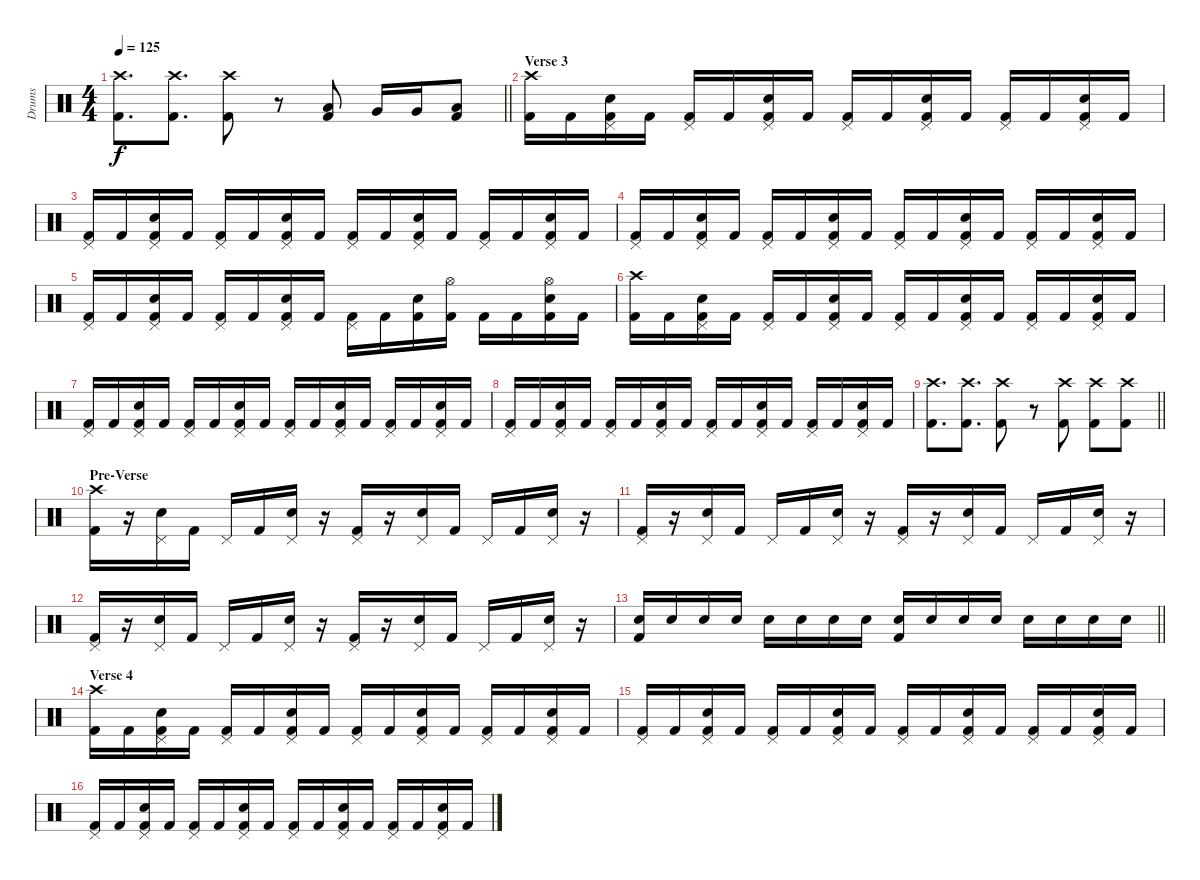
\track ("Drums" "Drums") {instrument percussion}
\staff {score}
\articulation defaults
\ts (4 4)
\tempo 125
\clef neutral
\barLineRight lightlight
\ks c
("Crash high (hit)" "Kick (hit) 2").8{d dy f} ("Crash high (hit)" "Kick (hit) 2").8{d} ("Crash high (hit)" "Kick (hit) 2").8 r.8 ("Low Tom (hit)" "Kick (hit) 2").8 "Very Low Tom (hit)".16 "Very Low Tom (hit)".16 ("Low Tom (hit)" "Kick (hit) 2").8 |
\section ("" "Verse 3")
("Crash high (hit)" "Kick (hit) 2").16 "Kick (hit) 2".16 ("Pedal Hi-Hat (hit)" "Snare (hit) 2" "Kick (hit) 2").16 "Kick (hit) 2".16 ("Pedal Hi-Hat (hit)" "Kick (hit) 2").16 "Kick (hit) 2".16 ("Pedal Hi-Hat (hit)" "Snare (hit) 2" "Kick (hit) 2").16 "Kick (hit) 2".16 ("Pedal Hi-Hat (hit)" "Kick (hit) 2").16 "Kick (hit) 2".16 ("Pedal Hi-Hat (hit)" "Snare (hit) 2" "Kick (hit) 2").16 "Kick (hit) 2".16 ("Pedal Hi-Hat (hit)" "Kick (hit) 2").16 "Kick (hit) 2".16 ("Pedal Hi-Hat (hit)" "Snare (hit) 2" "Kick (hit) 2").16 "Kick (hit) 2".16 |
("Pedal Hi-Hat (hit)" "Kick (hit) 2").16 "Kick (hit) 2".16 ("Pedal Hi-Hat (hit)" "Snare (hit) 2" "Kick (hit) 2").16 "Kick (hit) 2".16 ("Pedal Hi-Hat (hit)" "Kick (hit) 2").16 "Kick (hit) 2".16 ("Pedal Hi-Hat (hit)" "Snare (hit) 2" "Kick (hit) 2").16 "Kick (hit) 2".16 ("Pedal Hi-Hat (hit)" "Kick (hit) 2").16 "Kick (hit) 2".16 ("Pedal Hi-Hat (hit)" "Snare (hit) 2" "Kick (hit) 2").16 "Kick (hit) 2".16 ("Pedal Hi-Hat (hit)" "Kick (hit) 2").16 "Kick (hit) 2".16 ("Pedal Hi-Hat (hit)" "Snare (hit) 2" "Kick (hit) 2").16 "Kick (hit) 2".16 |
("Pedal Hi-Hat (hit)" "Kick (hit) 2").16 "Kick (hit) 2".16 ("Pedal Hi-Hat (hit)" "Snare (hit) 2" "Kick (hit) 2").16 "Kick (hit) 2".16 ("Pedal Hi-Hat (hit)" "Kick (hit) 2").16 "Kick (hit) 2".16 ("Pedal Hi-Hat (hit)" "Snare (hit) 2" "Kick (hit) 2").16 "Kick (hit) 2".16 ("Pedal Hi-Hat (hit)" "Kick (hit) 2").16 "Kick (hit) 2".16 ("Pedal Hi-Hat (hit)" "Snare (hit) 2" "Kick (hit) 2").16 "Kick (hit) 2".16 ("Pedal Hi-Hat (hit)" "Kick (hit) 2").16 "Kick (hit) 2".16 ("Pedal Hi-Hat (hit)" "Snare (hit) 2" "Kick (hit) 2").16 "Kick (hit) 2".16 |
("Pedal Hi-Hat (hit)" "Kick (hit) 2").16 "Kick (hit) 2".16 ("Pedal Hi-Hat (hit)" "Snare (hit) 2" "Kick (hit) 2").16 "Kick (hit) 2".16 ("Pedal Hi-Hat (hit)" "Kick (hit) 2").16 "Kick (hit) 2".16 ("Pedal Hi-Hat (hit)" "Snare (hit) 2" "Kick (hit) 2").16 "Kick (hit) 2".16 ("Pedal Hi-Hat (hit)" "Kick (hit) 2").16 "Kick (hit) 2".16 ("Snare (hit) 2" "Kick (hit) 2").16 ("Hi-Hat (open)" "Kick (hit) 2").16 "Kick (hit) 2".16 "Kick (hit) 2".16 ("Hi-Hat (open)" "Snare (hit) 2" "Kick (hit) 2").16 "Kick (hit) 2".16 |
("Crash high (hit)" "Kick (hit) 2").16 "Kick (hit) 2".16 ("Pedal Hi-Hat (hit)" "Snare (hit) 2" "Kick (hit) 2").16 "Kick (hit) 2".16 ("Pedal Hi-Hat (hit)" "Kick (hit) 2").16 "Kick (hit) 2".16 ("Pedal Hi-Hat (hit)" "Snare (hit) 2" "Kick (hit) 2").16 "Kick (hit) 2".16 ("Pedal Hi-Hat (hit)" "Kick (hit) 2").16 "Kick (hit) 2".16 ("Pedal Hi-Hat (hit)" "Snare (hit) 2" "Kick (hit) 2").16 "Kick (hit) 2".16 ("Pedal Hi-Hat (hit)" "Kick (hit) 2").16 "Kick (hit) 2".16 ("Pedal Hi-Hat (hit)" "Snare (hit) 2" "Kick (hit) 2").16 "Kick (hit) 2".16 |
("Pedal Hi-Hat (hit)" "Kick (hit) 2").16 "Kick (hit) 2".16 ("Pedal Hi-Hat (hit)" "Snare (hit) 2" "Kick (hit) 2").16 "Kick (hit) 2".16 ("Pedal Hi-Hat (hit)" "Kick (hit) 2").16 "Kick (hit) 2".16 ("Pedal Hi-Hat (hit)" "Snare (hit) 2" "Kick (hit) 2").16 "Kick (hit) 2".16 ("Pedal Hi-Hat (hit)" "Kick (hit) 2").16 "Kick (hit) 2".16 ("Pedal Hi-Hat (hit)" "Snare (hit) 2" "Kick (hit) 2").16 "Kick (hit) 2".16 ("Pedal Hi-Hat (hit)" "Kick (hit) 2").16 "Kick (hit) 2".16 ("Pedal Hi-Hat (hit)" "Snare (hit) 2" "Kick (hit) 2").16 "Kick (hit) 2".16 |
("Pedal Hi-Hat (hit)" "Kick (hit) 2").16 "Kick (hit) 2".16 ("Pedal Hi-Hat (hit)" "Snare (hit) 2" "Kick (hit) 2").16 "Kick (hit) 2".16 ("Pedal Hi-Hat (hit)" "Kick (hit) 2").16 "Kick (hit) 2".16 ("Pedal Hi-Hat (hit)" "Snare (hit) 2" "Kick (hit) 2").16 "Kick (hit) 2".16 ("Pedal Hi-Hat (hit)" "Kick (hit) 2").16 "Kick (hit) 2".16 ("Pedal Hi-Hat (hit)" "Snare (hit) 2" "Kick (hit) 2").16 "Kick (hit) 2".16 ("Pedal Hi-Hat (hit)" "Kick (hit) 2").16 "Kick (hit) 2".16 ("Pedal Hi-Hat (hit)" "Snare (hit) 2" "Kick (hit) 2").16 "Kick (hit) 2".16 |
\barLineRight lightlight
("Crash high (hit)" "Kick (hit) 2").8{d} ("Crash high (hit)" "Kick (hit) 2").8{d} ("Crash high (hit)" "Kick (hit) 2").8 r.8 ("Crash high (hit)" "Kick (hit) 2").8 ("Crash high (hit)" "Kick (hit) 2").8 ("Crash high (hit)" "Kick (hit) 2").8 |
\section ("" "Pre-Verse")
("Crash high (hit)" "Kick (hit) 2").16 r.16 ("Pedal Hi-Hat (hit)" "Snare (hit) 2").16 "Kick (hit) 2".16 "Pedal Hi-Hat (hit)".16 "Kick (hit) 2".16 ("Pedal Hi-Hat (hit)" "Snare (hit) 2").16 r.16 ("Pedal Hi-Hat (hit)" "Kick (hit) 2").16 r.16 ("Pedal Hi-Hat (hit)" "Snare (hit) 2").16 "Kick (hit) 2".16 "Pedal Hi-Hat (hit)".16 "Kick (hit) 2".16 ("Pedal Hi-Hat (hit)" "Snare (hit) 2").16 r.16 |
("Pedal Hi-Hat (hit)" "Kick (hit) 2").16 r.16 ("Pedal Hi-Hat (hit)" "Snare (hit) 2").16 "Kick (hit) 2".16 "Pedal Hi-Hat (hit)".16 "Kick (hit) 2".16 ("Pedal Hi-Hat (hit)" "Snare (hit) 2").16 r.16 ("Pedal Hi-Hat (hit)" "Kick (hit) 2").16 r.16 ("Pedal Hi-Hat (hit)" "Snare (hit) 2").16 "Kick (hit) 2".16 "Pedal Hi-Hat (hit)".16 "Kick (hit) 2".16 ("Pedal Hi-Hat (hit)" "Snare (hit) 2").16 r.16 |
("Pedal Hi-Hat (hit)" "Kick (hit) 2").16 r.16 ("Pedal Hi-Hat (hit)" "Snare (hit) 2").16 "Kick (hit) 2".16 "Pedal Hi-Hat (hit)".16 "Kick (hit) 2".16 ("Pedal Hi-Hat (hit)" "Snare (hit) 2").16 r.16 ("Pedal Hi-Hat (hit)" "Kick (hit) 2").16 r.16 ("Pedal Hi-Hat (hit)" "Snare (hit) 2").16 "Kick (hit) 2".16 "Pedal Hi-Hat (hit)".16 "Kick (hit) 2".16 ("Pedal Hi-Hat (hit)" "Snare (hit) 2").16 r.16 |
\barLineRight lightlight
("Snare (hit) 2" "Kick (hit) 2").16 "Snare (hit) 2".16 "Snare (hit) 2".16 "Snare (hit) 2".16 "Snare (hit) 2".16 "Snare (hit) 2".16 "Snare (hit) 2".16 "Snare (hit) 2".16 ("Snare (hit) 2" "Kick (hit) 2").16 "Snare (hit) 2".16 "Snare (hit) 2".16 "Snare (hit) 2".16 "Snare (hit) 2".16 "Snare (hit) 2".16 "Snare (hit) 2".16 "Snare (hit) 2".16 |
\section ("" "Verse 4")
("Crash high (hit)" "Kick (hit) 2").16 "Kick (hit) 2".16 ("Pedal Hi-Hat (hit)" "Snare (hit) 2" "Kick (hit) 2").16 "Kick (hit) 2".16 ("Pedal Hi-Hat (hit)" "Kick (hit) 2").16 "Kick (hit) 2".16 ("Pedal Hi-Hat (hit)" "Snare (hit) 2" "Kick (hit) 2").16 "Kick (hit) 2".16 ("Pedal Hi-Hat (hit)" "Kick (hit) 2").16 "Kick (hit) 2".16 ("Pedal Hi-Hat (hit)" "Snare (hit) 2" "Kick (hit) 2").16 "Kick (hit) 2".16 ("Pedal Hi-Hat (hit)" "Kick (hit) 2").16 "Kick (hit) 2".16 ("Pedal Hi-Hat (hit)" "Snare (hit) 2" "Kick (hit) 2").16 "Kick (hit) 2".16 |
("Pedal Hi-Hat (hit)" "Kick (hit) 2").16 "Kick (hit) 2".16 ("Pedal Hi-Hat (hit)" "Snare (hit) 2" "Kick (hit) 2").16 "Kick (hit) 2".16 ("Pedal Hi-Hat (hit)" "Kick (hit) 2").16 "Kick (hit) 2".16 ("Pedal Hi-Hat (hit)" "Snare (hit) 2" "Kick (hit) 2").16 "Kick (hit) 2".16 ("Pedal Hi-Hat (hit)" "Kick (hit) 2").16 "Kick (hit) 2".16 ("Pedal Hi-Hat (hit)" "Snare (hit) 2" "Kick (hit) 2").16 "Kick (hit) 2".16 ("Pedal Hi-Hat (hit)" "Kick (hit) 2").16 "Kick (hit) 2".16 ("Pedal Hi-Hat (hit)" "Snare (hit) 2" "Kick (hit) 2").16 "Kick (hit) 2".16 |
("Pedal Hi-Hat (hit)" "Kick (hit) 2").16 "Kick (hit) 2".16 ("Pedal Hi-Hat (hit)" "Snare (hit) 2" "Kick (hit) 2").16 "Kick (hit) 2".16 ("Pedal Hi-Hat (hit)" "Kick (hit) 2").16 "Kick (hit) 2".16 ("Pedal Hi-Hat (hit)" "Snare (hit) 2" "Kick (hit) 2").16 "Kick (hit) 2".16 ("Pedal Hi-Hat (hit)" "Kick (hit) 2").16 "Kick (hit) 2".16 ("Pedal Hi-Hat (hit)" "Snare (hit) 2" "Kick (hit) 2").16 "Kick (hit) 2".16 ("Pedal Hi-Hat (hit)" "Kick (hit) 2").16 "Kick (hit) 2".16 ("Pedal Hi-Hat (hit)" "Snare (hit) 2" "Kick (hit) 2").16 "Kick (hit) 2".16
